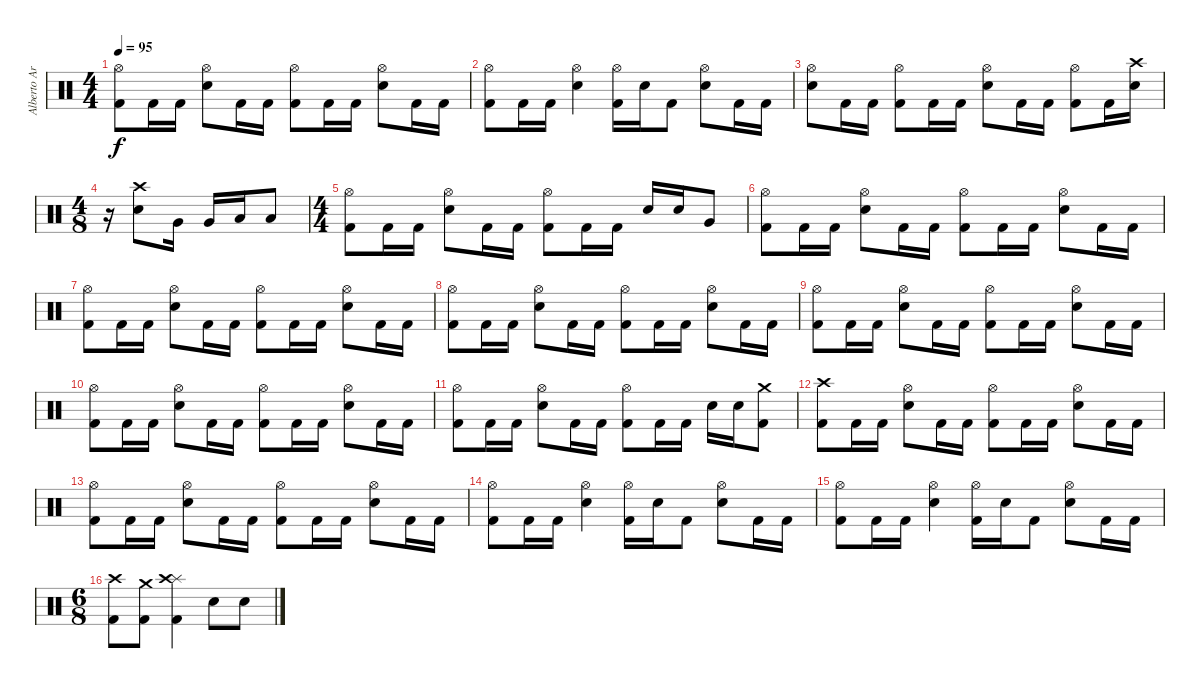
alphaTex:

\track ("Alberto Ardines (Batería)" "Alberto Ar") {instrument percussion}
\staff {score}
\articulation defaults
\ts (4 4)
\tempo 95
\clef neutral
\ks c
("Hi-Hat (open)" "Kick (hit) 2").8{dy f} "Kick (hit) 2".16 "Kick (hit) 2".16 ("Hi-Hat (open)" "Electric Snare (hit)").8 "Kick (hit) 2".16 "Kick (hit) 2".16 ("Hi-Hat (open)" "Kick (hit) 2").8 "Kick (hit) 2".16 "Kick (hit) 2".16 ("Hi-Hat (open)" "Electric Snare (hit)").8 "Kick (hit) 2".16 "Kick (hit) 2".16 |
("Hi-Hat (open)" "Kick (hit) 2").8 "Kick (hit) 2".16 "Kick (hit) 2".16 ("Hi-Hat (open)" "Electric Snare (hit)").4 ("Hi-Hat (open)" "Kick (hit) 2").16 "Electric Snare (hit)".16 "Kick (hit) 2".8 ("Hi-Hat (open)" "Electric Snare (hit)").8 "Kick (hit) 2".16 "Kick (hit) 2".16 |
("Hi-Hat (open)" "Electric Snare (hit)").8 "Kick (hit) 2".16 "Kick (hit) 2".16 ("Hi-Hat (open)" "Kick (hit) 2").8 "Kick (hit) 2".16 "Kick (hit) 2".16 ("Hi-Hat (open)" "Electric Snare (hit)").8 "Kick (hit) 2".16 "Kick (hit) 2".16 ("Hi-Hat (open)" "Kick (hit) 2").8 "Kick (hit) 2".16 ("Crash high (hit)" "Electric Snare (hit)").16 |
\ts (4 8)
r.16 ("Crash high (hit)" "Electric Snare (hit)").8 "Very Low Tom (hit)".16 "Very Low Tom (hit)".16 "Low Floor Tom (hit)".16 "Low Floor Tom (hit)".8 |
\ts (4 4)
("Hi-Hat (open)" "Kick (hit) 2").8 "Kick (hit) 2".16 "Kick (hit) 2".16 ("Hi-Hat (open)" "Electric Snare (hit)").8 "Kick (hit) 2".16 "Kick (hit) 2".16 ("Hi-Hat (open)" "Kick (hit) 2").8 "Kick (hit) 2".16 "Kick (hit) 2".16 "Electric Snare (hit)".16 "Electric Snare (hit)".16 "Very Low Tom (hit)".8 |
("Hi-Hat (open)" "Kick (hit) 2").8 "Kick (hit) 2".16 "Kick (hit) 2".16 ("Hi-Hat (open)" "Electric Snare (hit)").8 "Kick (hit) 2".16 "Kick (hit) 2".16 ("Hi-Hat (open)" "Kick (hit) 2").8 "Kick (hit) 2".16 "Kick (hit) 2".16 ("Hi-Hat (open)" "Electric Snare (hit)").8 "Kick (hit) 2".16 "Kick (hit) 2".16 |
("Hi-Hat (open)" "Kick (hit) 2").8 "Kick (hit) 2".16 "Kick (hit) 2".16 ("Hi-Hat (open)" "Electric Snare (hit)").8 "Kick (hit) 2".16 "Kick (hit) 2".16 ("Hi-Hat (open)" "Kick (hit) 2").8 "Kick (hit) 2".16 "Kick (hit) 2".16 ("Hi-Hat (open)" "Electric Snare (hit)").8 "Kick (hit) 2".16 "Kick (hit) 2".16 |
("Hi-Hat (open)" "Kick (hit) 2").8 "Kick (hit) 2".16 "Kick (hit) 2".16 ("Hi-Hat (open)" "Electric Snare (hit)").8 "Kick (hit) 2".16 "Kick (hit) 2".16 ("Hi-Hat (open)" "Kick (hit) 2").8 "Kick (hit) 2".16 "Kick (hit) 2".16 ("Hi-Hat (open)" "Electric Snare (hit)").8 "Kick (hit) 2".16 "Kick (hit) 2".16 |
("Hi-Hat (open)" "Kick (hit) 2").8 "Kick (hit) 2".16 "Kick (hit) 2".16 ("Hi-Hat (open)" "Electric Snare (hit)").8 "Kick (hit) 2".16 "Kick (hit) 2".16 ("Hi-Hat (open)" "Kick (hit) 2").8 "Kick (hit) 2".16 "Kick (hit) 2".16 ("Hi-Hat (open)" "Electric Snare (hit)").8 "Kick (hit) 2".16 "Kick (hit) 2".16 |
("Hi-Hat (open)" "Kick (hit) 2").8 "Kick (hit) 2".16 "Kick (hit) 2".16 ("Hi-Hat (open)" "Electric Snare (hit)").8 "Kick (hit) 2".16 "Kick (hit) 2".16 ("Hi-Hat (open)" "Kick (hit) 2").8 "Kick (hit) 2".16 "Kick (hit) 2".16 ("Hi-Hat (open)" "Electric Snare (hit)").8 "Kick (hit) 2".16 "Kick (hit) 2".16 |
("Hi-Hat (open)" "Kick (hit) 2").8 "Kick (hit) 2".16 "Kick (hit) 2".16 ("Hi-Hat (open)" "Electric Snare (hit)").8 "Kick (hit) 2".16 "Kick (hit) 2".16 ("Hi-Hat (open)" "Kick (hit) 2").8 "Kick (hit) 2".16 "Kick (hit) 2".16 "Electric Snare (hit)".16 "Electric Snare (hit)".16 ("Crash medium (hit)" "Kick (hit) 2").8 |
("Crash high (hit)" "Kick (hit) 2").8 "Kick (hit) 2".16 "Kick (hit) 2".16 ("Hi-Hat (open)" "Electric Snare (hit)").8 "Kick (hit) 2".16 "Kick (hit) 2".16 ("Hi-Hat (open)" "Kick (hit) 2").8 "Kick (hit) 2".16 "Kick (hit) 2".16 ("Hi-Hat (open)" "Electric Snare (hit)").8 "Kick (hit) 2".16 "Kick (hit) 2".16 |
("Hi-Hat (open)" "Kick (hit) 2").8 "Kick (hit) 2".16 "Kick (hit) 2".16 ("Hi-Hat (open)" "Electric Snare (hit)").8 "Kick (hit) 2".16 "Kick (hit) 2".16 ("Hi-Hat (open)" "Kick (hit) 2").8 "Kick (hit) 2".16 "Kick (hit) 2".16 ("Hi-Hat (open)" "Electric Snare (hit)").8 "Kick (hit) 2".16 "Kick (hit) 2".16 |
("Hi-Hat (open)" "Kick (hit) 2").8 "Kick (hit) 2".16 "Kick (hit) 2".16 ("Hi-Hat (open)" "Electric Snare (hit)").4 ("Hi-Hat (open)" "Kick (hit) 2").16 "Electric Snare (hit)".16 "Kick (hit) 2".8 ("Hi-Hat (open)" "Electric Snare (hit)").8 "Kick (hit) 2".16 "Kick (hit) 2".16 |
("Hi-Hat (open)" "Kick (hit) 2").8 "Kick (hit) 2".16 "Kick (hit) 2".16 ("Hi-Hat (open)" "Electric Snare (hit)").4 ("Hi-Hat (open)" "Kick (hit) 2").16 "Electric Snare (hit)".16 "Kick (hit) 2".8 ("Hi-Hat (open)" "Electric Snare (hit)").8 "Kick (hit) 2".16 "Kick (hit) 2".16 |
\ts (6 8)
("Crash high (hit)" "Kick (hit) 2").8 ("Crash medium (hit)" "Kick (hit) 2").8 ("Splash (hit)" "Crash high (hit)" "Kick (hit) 2").4 "Electric Snare (hit)".8 "Electric Snare (hit)".8
